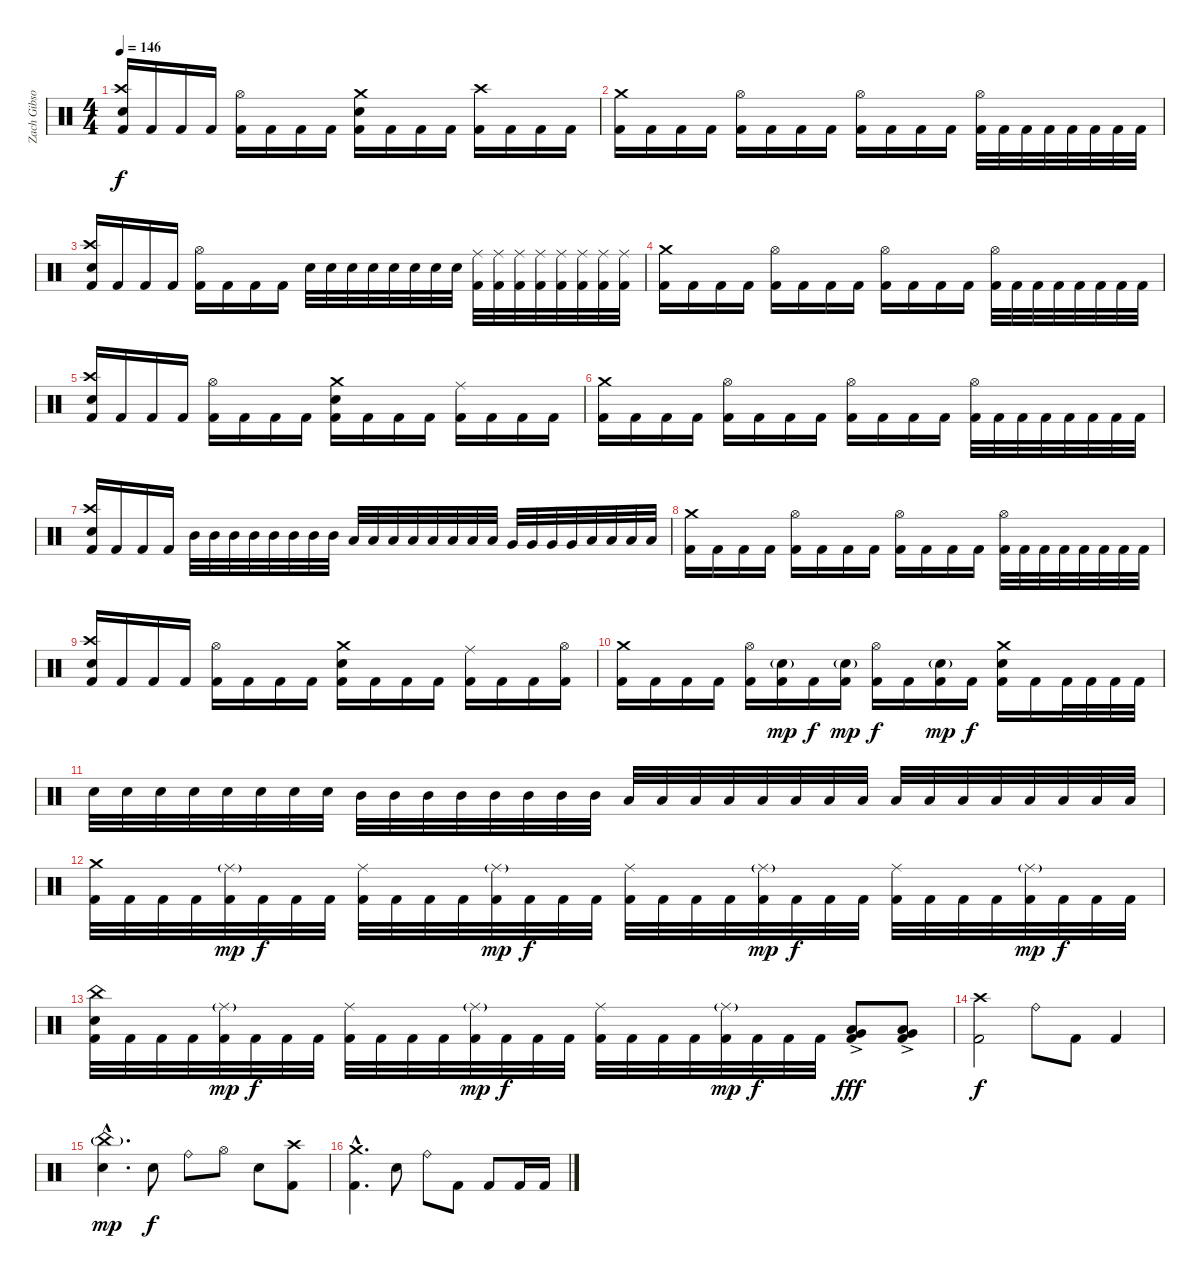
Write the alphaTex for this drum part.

\track ("Zach Gibson (Drums)" "Zach Gibso") {instrument percussion}
\staff {score}
\articulation defaults
\ts (4 4)
\tempo 146
\clef neutral
\ks c
("Snare (hit) 2" "Crash high (hit)" "Kick (hit) 2").16{dy f} "Kick (hit) 2".16 "Kick (hit) 2".16 "Kick (hit) 2".16 ("Hi-Hat (open)" "Kick (hit) 2").16 "Kick (hit) 2".16 "Kick (hit) 2".16 "Kick (hit) 2".16 ("Snare (hit) 2" "Crash medium (hit)" "Kick (hit) 2").16 "Kick (hit) 2".16 "Kick (hit) 2".16 "Kick (hit) 2".16 ("Crash high (hit)" "Kick (hit) 2").16 "Kick (hit) 2".16 "Kick (hit) 2".16 "Kick (hit) 2".16 |
("Crash medium (hit)" "Kick (hit) 2").16 "Kick (hit) 2".16 "Kick (hit) 2".16 "Kick (hit) 2".16 ("Hi-Hat (open)" "Kick (hit) 2").16 "Kick (hit) 2".16 "Kick (hit) 2".16 "Kick (hit) 2".16 ("Hi-Hat (open)" "Kick (hit) 2").16 "Kick (hit) 2".16 "Kick (hit) 2".16 "Kick (hit) 2".16 ("Hi-Hat (open)" "Kick (hit) 2").32 "Kick (hit) 2".32 "Kick (hit) 2".32 "Kick (hit) 2".32 "Kick (hit) 2".32 "Kick (hit) 2".32 "Kick (hit) 2".32 "Kick (hit) 2".32 |
("Snare (hit) 2" "Crash high (hit)" "Kick (hit) 2").16 "Kick (hit) 2".16 "Kick (hit) 2".16 "Kick (hit) 2".16 ("Hi-Hat (open)" "Kick (hit) 2").16 "Kick (hit) 2".16 "Kick (hit) 2".16 "Kick (hit) 2".16 "Snare (hit) 2".32 "Snare (hit) 2".32 "Snare (hit) 2".32 "Snare (hit) 2".32 "Snare (hit) 2".32 "Snare (hit) 2".32 "Snare (hit) 2".32 "Snare (hit) 2".32 ("Ride (middle)" "Kick (hit) 2").32 ("Ride (middle)" "Kick (hit) 2").32 ("Ride (middle)" "Kick (hit) 2").32 ("Ride (middle)" "Kick (hit) 2").32 ("Ride (middle)" "Kick (hit) 2").32 ("Ride (middle)" "Kick (hit) 2").32 ("Ride (middle)" "Kick (hit) 2").32 ("Ride (middle)" "Kick (hit) 2").32 |
("Crash medium (hit)" "Kick (hit) 2").16 "Kick (hit) 2".16 "Kick (hit) 2".16 "Kick (hit) 2".16 ("Hi-Hat (open)" "Kick (hit) 2").16 "Kick (hit) 2".16 "Kick (hit) 2".16 "Kick (hit) 2".16 ("Hi-Hat (open)" "Kick (hit) 2").16 "Kick (hit) 2".16 "Kick (hit) 2".16 "Kick (hit) 2".16 ("Hi-Hat (open)" "Kick (hit) 2").32 "Kick (hit) 2".32 "Kick (hit) 2".32 "Kick (hit) 2".32 "Kick (hit) 2".32 "Kick (hit) 2".32 "Kick (hit) 2".32 "Kick (hit) 2".32 |
("Snare (hit) 2" "Crash high (hit)" "Kick (hit) 2").16 "Kick (hit) 2".16 "Kick (hit) 2".16 "Kick (hit) 2".16 ("Hi-Hat (open)" "Kick (hit) 2").16 "Kick (hit) 2".16 "Kick (hit) 2".16 "Kick (hit) 2".16 ("Snare (hit) 2" "Crash medium (hit)" "Kick (hit) 2").16 "Kick (hit) 2".16 "Kick (hit) 2".16 "Kick (hit) 2".16 ("Ride (middle)" "Kick (hit) 2").16 "Kick (hit) 2".16 "Kick (hit) 2".16 "Kick (hit) 2".16 |
("Crash medium (hit)" "Kick (hit) 2").16 "Kick (hit) 2".16 "Kick (hit) 2".16 "Kick (hit) 2".16 ("Hi-Hat (open)" "Kick (hit) 2").16 "Kick (hit) 2".16 "Kick (hit) 2".16 "Kick (hit) 2".16 ("Hi-Hat (open)" "Kick (hit) 2").16 "Kick (hit) 2".16 "Kick (hit) 2".16 "Kick (hit) 2".16 ("Hi-Hat (open)" "Kick (hit) 2").32 "Kick (hit) 2".32 "Kick (hit) 2".32 "Kick (hit) 2".32 "Kick (hit) 2".32 "Kick (hit) 2".32 "Kick (hit) 2".32 "Kick (hit) 2".32 |
("Snare (hit) 2" "Crash high (hit)" "Kick (hit) 2").16 "Kick (hit) 2".16 "Kick (hit) 2".16 "Kick (hit) 2".16 "Mid Tom (hit)".32 "Mid Tom (hit)".32 "Mid Tom (hit)".32 "Mid Tom (hit)".32 "Mid Tom (hit)".32 "Mid Tom (hit)".32 "Mid Tom (hit)".32 "Mid Tom (hit)".32 "Low Tom (hit)".32 "Low Tom (hit)".32 "Low Tom (hit)".32 "Low Tom (hit)".32 "Low Tom (hit)".32 "Low Tom (hit)".32 "Low Tom (hit)".32 "Low Tom (hit)".32 "Very Low Tom (hit)".32 "Very Low Tom (hit)".32 "Very Low Tom (hit)".32 "Very Low Tom (hit)".32 "Low Floor Tom (hit)".32 "Low Floor Tom (hit)".32 "Low Floor Tom (hit)".32 "Low Floor Tom (hit)".32 |
("Crash medium (hit)" "Kick (hit) 2").16 "Kick (hit) 2".16 "Kick (hit) 2".16 "Kick (hit) 2".16 ("Hi-Hat (open)" "Kick (hit) 2").16 "Kick (hit) 2".16 "Kick (hit) 2".16 "Kick (hit) 2".16 ("Hi-Hat (open)" "Kick (hit) 2").16 "Kick (hit) 2".16 "Kick (hit) 2".16 "Kick (hit) 2".16 ("Hi-Hat (open)" "Kick (hit) 2").32 "Kick (hit) 2".32 "Kick (hit) 2".32 "Kick (hit) 2".32 "Kick (hit) 2".32 "Kick (hit) 2".32 "Kick (hit) 2".32 "Kick (hit) 2".32 |
("Snare (hit) 2" "Crash high (hit)" "Kick (hit) 2").16 "Kick (hit) 2".16 "Kick (hit) 2".16 "Kick (hit) 2".16 ("Hi-Hat (open)" "Kick (hit) 2").16 "Kick (hit) 2".16 "Kick (hit) 2".16 "Kick (hit) 2".16 ("Snare (hit) 2" "Crash medium (hit)" "Kick (hit) 2").16 "Kick (hit) 2".16 "Kick (hit) 2".16 "Kick (hit) 2".16 ("Ride (middle)" "Kick (hit) 2").16 "Kick (hit) 2".16 "Kick (hit) 2".16 ("Hi-Hat (open)" "Kick (hit) 2").16 |
("Crash medium (hit)" "Kick (hit) 2").16 "Kick (hit) 2".16 "Kick (hit) 2".16 "Kick (hit) 2".16 ("Hi-Hat (open)" "Kick (hit) 2").16 ("Snare (hit) 2"{g} "Kick (hit) 2").16{dy mp} "Kick (hit) 2".16{dy f} ("Snare (hit) 2"{g} "Kick (hit) 2").16{dy mp} ("Hi-Hat (open)" "Kick (hit) 2").16{dy f} "Kick (hit) 2".16 ("Snare (hit) 2"{g} "Kick (hit) 2").16{dy mp} "Kick (hit) 2".16{dy f} ("Snare (hit) 2" "Crash medium (hit)" "Kick (hit) 2").16 "Kick (hit) 2".16 "Kick (hit) 2".32 "Kick (hit) 2".32 "Kick (hit) 2".32 "Kick (hit) 2".32 |
"Snare (hit) 2".32 "Snare (hit) 2".32 "Snare (hit) 2".32 "Snare (hit) 2".32 "Snare (hit) 2".32 "Snare (hit) 2".32 "Snare (hit) 2".32 "Snare (hit) 2".32 "Mid Tom (hit)".32 "Mid Tom (hit)".32 "Mid Tom (hit)".32 "Mid Tom (hit)".32 "Mid Tom (hit)".32 "Mid Tom (hit)".32 "Mid Tom (hit)".32 "Mid Tom (hit)".32 "Low Tom (hit)".32 "Low Tom (hit)".32 "Low Tom (hit)".32 "Low Tom (hit)".32 "Low Tom (hit)".32 "Low Tom (hit)".32 "Low Tom (hit)".32 "Low Tom (hit)".32 "Low Floor Tom (hit)".32 "Low Floor Tom (hit)".32 "Low Floor Tom (hit)".32 "Low Floor Tom (hit)".32 "Low Floor Tom (hit)".32 "Low Floor Tom (hit)".32 "Low Floor Tom (hit)".32 "Low Floor Tom (hit)".32 |
("Crash medium (hit)" "Kick (hit) 2").32 "Kick (hit) 2".32 "Kick (hit) 2".32 "Kick (hit) 2".32 ("Ride (middle)"{g} "Kick (hit) 2").32{dy mp} "Kick (hit) 2".32{dy f} "Kick (hit) 2".32 "Kick (hit) 2".32 ("Ride (middle)" "Kick (hit) 2").32 "Kick (hit) 2".32 "Kick (hit) 2".32 "Kick (hit) 2".32 ("Ride (middle)"{g} "Kick (hit) 2").32{dy mp} "Kick (hit) 2".32{dy f} "Kick (hit) 2".32 "Kick (hit) 2".32 ("Ride (middle)" "Kick (hit) 2").32 "Kick (hit) 2".32 "Kick (hit) 2".32 "Kick (hit) 2".32 ("Ride (middle)"{g} "Kick (hit) 2").32{dy mp} "Kick (hit) 2".32{dy f} "Kick (hit) 2".32 "Kick (hit) 2".32 ("Ride (middle)" "Kick (hit) 2").32 "Kick (hit) 2".32 "Kick (hit) 2".32 "Kick (hit) 2".32 ("Ride (middle)"{g} "Kick (hit) 2").32{dy mp} "Kick (hit) 2".32{dy f} "Kick (hit) 2".32 "Kick (hit) 2".32 |
("China (hit)" "Snare (hit) 2" "Kick (hit) 2").32 "Kick (hit) 2".32 "Kick (hit) 2".32 "Kick (hit) 2".32 ("Ride (middle)"{g} "Kick (hit) 2").32{dy mp} "Kick (hit) 2".32{dy f} "Kick (hit) 2".32 "Kick (hit) 2".32 ("Ride (middle)" "Kick (hit) 2").32 "Kick (hit) 2".32 "Kick (hit) 2".32 "Kick (hit) 2".32 ("Ride (middle)"{g} "Kick (hit) 2").32{dy mp} "Kick (hit) 2".32{dy f} "Kick (hit) 2".32 "Kick (hit) 2".32 ("Ride (middle)" "Kick (hit) 2").32 "Kick (hit) 2".32 "Kick (hit) 2".32 "Kick (hit) 2".32 ("Ride (middle)"{g} "Kick (hit) 2").32{dy mp} "Kick (hit) 2".32{dy f} "Kick (hit) 2".32 "Kick (hit) 2".32 ("Low Tom (hit)"{ac} "Very Low Tom (hit)"{ac} "Kick (hit) 2"{ac}).8{dy fff} ("Very Low Tom (hit)"{ac} "Low Floor Tom (hit)"{ac} "Kick (hit) 2"{ac}).8 |
("Crash high (hit)" "Kick (hit) 2").2{dy f} "Ride (bell)".8 "Kick (hit) 2".8 "Kick (hit) 2".4 |
("China (hit)"{g hac} "Snare (hit) 2"{hac}).4{d dy mp} "Snare (hit) 2".8{dy f} "Ride (bell)".8 "Hi-Hat (open)".8 "Snare (hit) 2".8 ("Crash high (hit)" "Kick (hit) 2").8 |
("Crash medium (hit)"{hac} "Kick (hit) 2"{hac}).4{d} "Snare (hit) 2".8 "Ride (bell)".8 "Kick (hit) 2".8 "Kick (hit) 2".8 "Kick (hit) 2".16 "Kick (hit) 2".16
